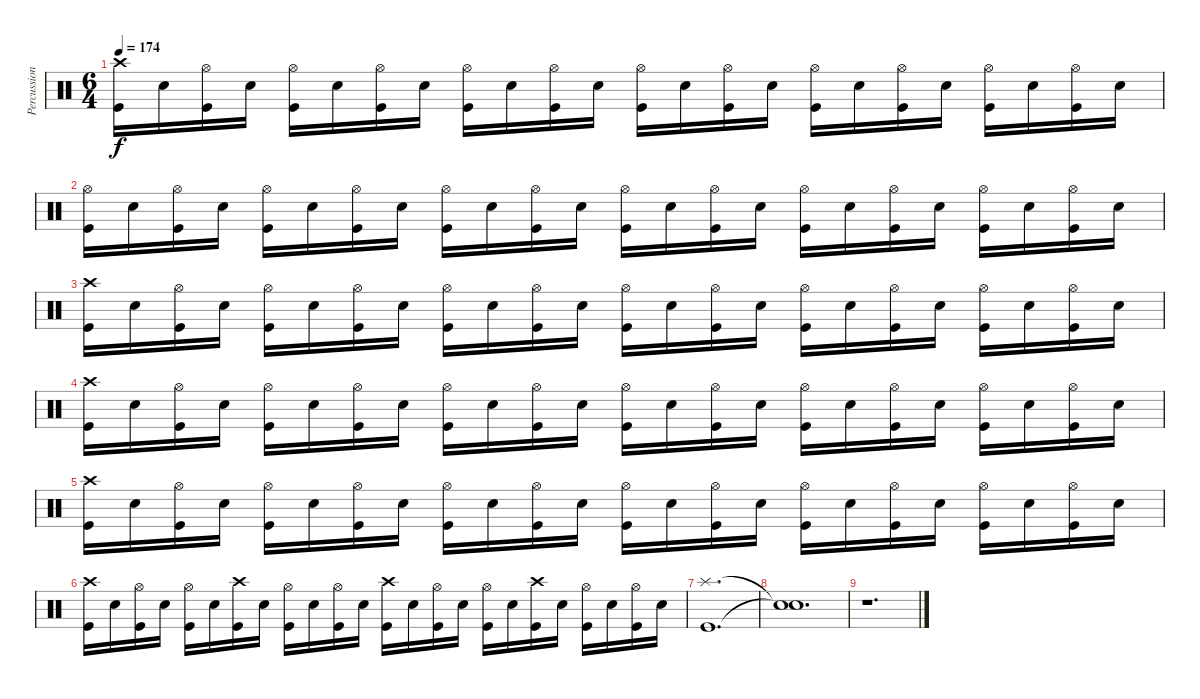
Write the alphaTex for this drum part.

\track ("Percussion" "Percussion") {instrument percussion}
\staff {score}
\articulation defaults
\ts (6 4)
\tempo 174
\clef neutral
\ks c
("Crash high (hit)" "Kick (hit)").16{dy f} "Snare (hit) 2".16 ("Hi-Hat (open)" "Kick (hit)").16 "Snare (hit) 2".16 ("Hi-Hat (open)" "Kick (hit)").16 "Snare (hit) 2".16 ("Hi-Hat (open)" "Kick (hit)").16 "Snare (hit) 2".16 ("Hi-Hat (open)" "Kick (hit)").16 "Snare (hit) 2".16 ("Hi-Hat (open)" "Kick (hit)").16 "Snare (hit) 2".16 ("Hi-Hat (open)" "Kick (hit)").16 "Snare (hit) 2".16 ("Hi-Hat (open)" "Kick (hit)").16 "Snare (hit) 2".16 ("Hi-Hat (open)" "Kick (hit)").16 "Snare (hit) 2".16 ("Hi-Hat (open)" "Kick (hit)").16 "Snare (hit) 2".16 ("Hi-Hat (open)" "Kick (hit)").16 "Snare (hit) 2".16 ("Hi-Hat (open)" "Kick (hit)").16 "Snare (hit) 2".16 |
("Hi-Hat (open)" "Kick (hit)").16 "Snare (hit) 2".16 ("Hi-Hat (open)" "Kick (hit)").16 "Snare (hit) 2".16 ("Hi-Hat (open)" "Kick (hit)").16 "Snare (hit) 2".16 ("Hi-Hat (open)" "Kick (hit)").16 "Snare (hit) 2".16 ("Hi-Hat (open)" "Kick (hit)").16 "Snare (hit) 2".16 ("Hi-Hat (open)" "Kick (hit)").16 "Snare (hit) 2".16 ("Hi-Hat (open)" "Kick (hit)").16 "Snare (hit) 2".16 ("Hi-Hat (open)" "Kick (hit)").16 "Snare (hit) 2".16 ("Hi-Hat (open)" "Kick (hit)").16 "Snare (hit) 2".16 ("Hi-Hat (open)" "Kick (hit)").16 "Snare (hit) 2".16 ("Hi-Hat (open)" "Kick (hit)").16 "Snare (hit) 2".16 ("Hi-Hat (open)" "Kick (hit)").16 "Snare (hit) 2".16 |
("Crash high (hit)" "Kick (hit)").16 "Snare (hit) 2".16 ("Hi-Hat (open)" "Kick (hit)").16 "Snare (hit) 2".16 ("Hi-Hat (open)" "Kick (hit)").16 "Snare (hit) 2".16 ("Hi-Hat (open)" "Kick (hit)").16 "Snare (hit) 2".16 ("Hi-Hat (open)" "Kick (hit)").16 "Snare (hit) 2".16 ("Hi-Hat (open)" "Kick (hit)").16 "Snare (hit) 2".16 ("Hi-Hat (open)" "Kick (hit)").16 "Snare (hit) 2".16 ("Hi-Hat (open)" "Kick (hit)").16 "Snare (hit) 2".16 ("Hi-Hat (open)" "Kick (hit)").16 "Snare (hit) 2".16 ("Hi-Hat (open)" "Kick (hit)").16 "Snare (hit) 2".16 ("Hi-Hat (open)" "Kick (hit)").16 "Snare (hit) 2".16 ("Hi-Hat (open)" "Kick (hit)").16 "Snare (hit) 2".16 |
("Crash high (hit)" "Kick (hit)").16 "Snare (hit) 2".16 ("Hi-Hat (open)" "Kick (hit)").16 "Snare (hit) 2".16 ("Hi-Hat (open)" "Kick (hit)").16 "Snare (hit) 2".16 ("Hi-Hat (open)" "Kick (hit)").16 "Snare (hit) 2".16 ("Hi-Hat (open)" "Kick (hit)").16 "Snare (hit) 2".16 ("Hi-Hat (open)" "Kick (hit)").16 "Snare (hit) 2".16 ("Hi-Hat (open)" "Kick (hit)").16 "Snare (hit) 2".16 ("Hi-Hat (open)" "Kick (hit)").16 "Snare (hit) 2".16 ("Hi-Hat (open)" "Kick (hit)").16 "Snare (hit) 2".16 ("Hi-Hat (open)" "Kick (hit)").16 "Snare (hit) 2".16 ("Hi-Hat (open)" "Kick (hit)").16 "Snare (hit) 2".16 ("Hi-Hat (open)" "Kick (hit)").16 "Snare (hit) 2".16 |
("Crash high (hit)" "Kick (hit)").16 "Snare (hit) 2".16 ("Hi-Hat (open)" "Kick (hit)").16 "Snare (hit) 2".16 ("Hi-Hat (open)" "Kick (hit)").16 "Snare (hit) 2".16 ("Hi-Hat (open)" "Kick (hit)").16 "Snare (hit) 2".16 ("Hi-Hat (open)" "Kick (hit)").16 "Snare (hit) 2".16 ("Hi-Hat (open)" "Kick (hit)").16 "Snare (hit) 2".16 ("Hi-Hat (open)" "Kick (hit)").16 "Snare (hit) 2".16 ("Hi-Hat (open)" "Kick (hit)").16 "Snare (hit) 2".16 ("Hi-Hat (open)" "Kick (hit)").16 "Snare (hit) 2".16 ("Hi-Hat (open)" "Kick (hit)").16 "Snare (hit) 2".16 ("Hi-Hat (open)" "Kick (hit)").16 "Snare (hit) 2".16 ("Hi-Hat (open)" "Kick (hit)").16 "Snare (hit) 2".16 |
("Crash high (hit)" "Kick (hit)").16 "Snare (hit) 2".16 ("Hi-Hat (open)" "Kick (hit)").16 "Snare (hit) 2".16 ("Hi-Hat (open)" "Kick (hit)").16 "Snare (hit) 2".16 ("Crash high (hit)" "Kick (hit)").16 "Snare (hit) 2".16 ("Hi-Hat (open)" "Kick (hit)").16 "Snare (hit) 2".16 ("Hi-Hat (open)" "Kick (hit)").16 "Snare (hit) 2".16 ("Crash high (hit)" "Kick (hit)").16 "Snare (hit) 2".16 ("Hi-Hat (open)" "Kick (hit)").16 "Snare (hit) 2".16 ("Hi-Hat (open)" "Kick (hit)").16 "Snare (hit) 2".16 ("Crash high (hit)" "Kick (hit)").16 "Snare (hit) 2".16 ("Hi-Hat (open)" "Kick (hit)").16 "Snare (hit) 2".16 ("Hi-Hat (open)" "Kick (hit)").16 "Snare (hit) 2".16 |
("Splash (hit)" "Kick (hit)").1{d} |
("Snare (hit)"{t} "Snare (hit)"{t}).1{d} |
r.1{d}
